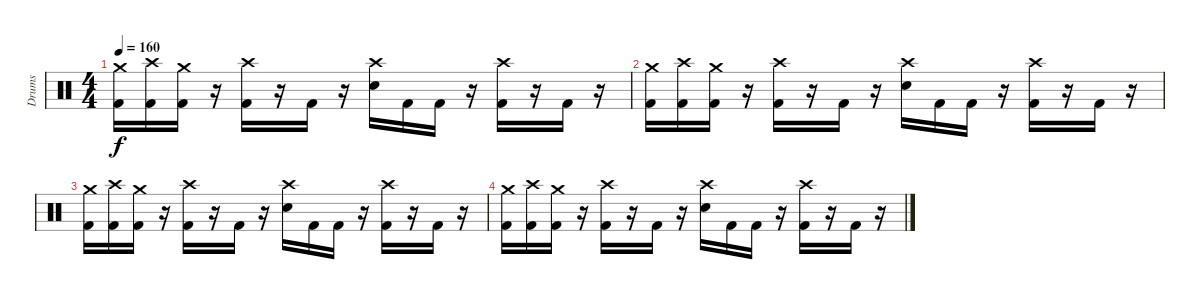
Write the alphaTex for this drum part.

\track ("Drums" "Drums") {instrument percussion}
\staff {score}
\articulation defaults
\ts (4 4)
\tempo 160
\clef neutral
\ks c
("Crash medium (hit)" "Kick (hit) 2").16{dy f volume 0} ("Crash high (hit)" "Kick (hit) 2").16 ("Crash medium (hit)" "Kick (hit) 2").16 r.16 ("Crash high (hit)" "Kick (hit) 2").16 r.16 "Kick (hit) 2".16 r.16 ("Crash high (hit)" "Electric Snare (hit)").16 "Kick (hit) 2".16 "Kick (hit) 2".16 r.16 ("Crash high (hit)" "Kick (hit) 2").16 r.16 "Kick (hit) 2".16 r.16 |
("Crash medium (hit)" "Kick (hit) 2").16 ("Crash high (hit)" "Kick (hit) 2").16 ("Crash medium (hit)" "Kick (hit) 2").16 r.16 ("Crash high (hit)" "Kick (hit) 2").16 r.16 "Kick (hit) 2".16 r.16 ("Crash high (hit)" "Electric Snare (hit)").16 "Kick (hit) 2".16 "Kick (hit) 2".16 r.16 ("Crash high (hit)" "Kick (hit) 2").16 r.16 "Kick (hit) 2".16 r.16 |
("Crash medium (hit)" "Kick (hit) 2").16 ("Crash high (hit)" "Kick (hit) 2").16 ("Crash medium (hit)" "Kick (hit) 2").16 r.16 ("Crash high (hit)" "Kick (hit) 2").16 r.16 "Kick (hit) 2".16 r.16 ("Crash high (hit)" "Electric Snare (hit)").16 "Kick (hit) 2".16 "Kick (hit) 2".16 r.16 ("Crash high (hit)" "Kick (hit) 2").16 r.16 "Kick (hit) 2".16 r.16 |
("Crash medium (hit)" "Kick (hit) 2").16 ("Crash high (hit)" "Kick (hit) 2").16 ("Crash medium (hit)" "Kick (hit) 2").16 r.16 ("Crash high (hit)" "Kick (hit) 2").16 r.16 "Kick (hit) 2".16 r.16 ("Crash high (hit)" "Electric Snare (hit)").16 "Kick (hit) 2".16 "Kick (hit) 2".16 r.16 ("Crash high (hit)" "Kick (hit) 2").16 r.16 "Kick (hit) 2".16 r.16
